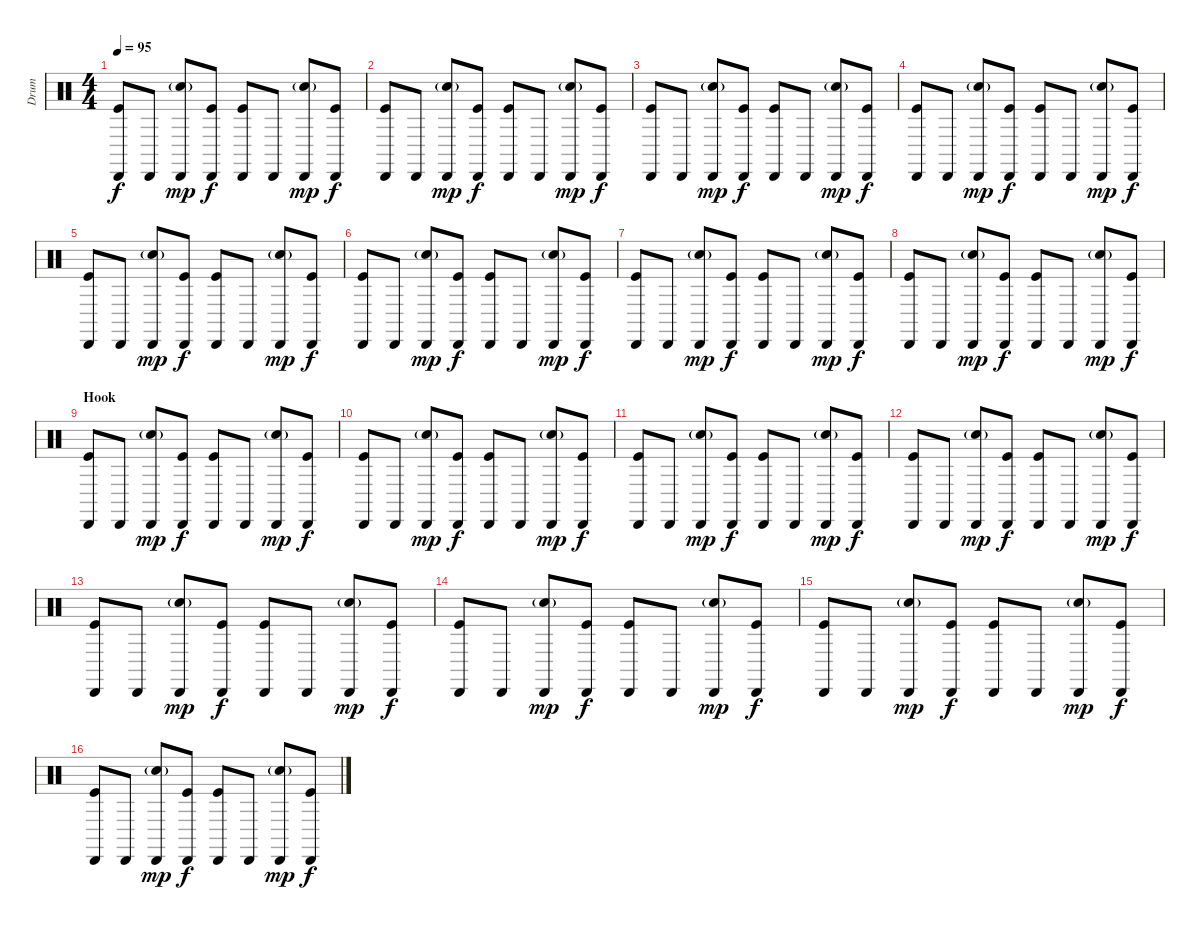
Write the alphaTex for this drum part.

\track ("Drum" "Drum") {instrument percussion}
\staff {score}
\articulation defaults
\ts (4 4)
\tempo 95
\clef neutral
\ks c
("Cabasa (hit)" "Kick (hit)").8{dy f} "Cabasa (hit)".8 ("Cabasa (hit)" "Electric Snare (hit)"{g}).8{dy mp} ("Cabasa (hit)" "Kick (hit)").8{dy f} ("Cabasa (hit)" "Kick (hit)").8 "Cabasa (hit)".8 ("Cabasa (hit)" "Electric Snare (hit)"{g}).8{dy mp} ("Cabasa (hit)" "Kick (hit)").8{dy f} |
("Cabasa (hit)" "Kick (hit)").8 "Cabasa (hit)".8 ("Cabasa (hit)" "Electric Snare (hit)"{g}).8{dy mp} ("Cabasa (hit)" "Kick (hit)").8{dy f} ("Cabasa (hit)" "Kick (hit)").8 "Cabasa (hit)".8 ("Cabasa (hit)" "Electric Snare (hit)"{g}).8{dy mp} ("Cabasa (hit)" "Kick (hit)").8{dy f} |
("Cabasa (hit)" "Kick (hit)").8 "Cabasa (hit)".8 ("Cabasa (hit)" "Electric Snare (hit)"{g}).8{dy mp} ("Cabasa (hit)" "Kick (hit)").8{dy f} ("Cabasa (hit)" "Kick (hit)").8 "Cabasa (hit)".8 ("Cabasa (hit)" "Electric Snare (hit)"{g}).8{dy mp} ("Cabasa (hit)" "Kick (hit)").8{dy f} |
("Cabasa (hit)" "Kick (hit)").8 "Cabasa (hit)".8 ("Cabasa (hit)" "Electric Snare (hit)"{g}).8{dy mp} ("Cabasa (hit)" "Kick (hit)").8{dy f} ("Cabasa (hit)" "Kick (hit)").8 "Cabasa (hit)".8 ("Cabasa (hit)" "Electric Snare (hit)"{g}).8{dy mp} ("Cabasa (hit)" "Kick (hit)").8{dy f} |
("Cabasa (hit)" "Kick (hit)").8 "Cabasa (hit)".8 ("Cabasa (hit)" "Electric Snare (hit)"{g}).8{dy mp} ("Cabasa (hit)" "Kick (hit)").8{dy f} ("Cabasa (hit)" "Kick (hit)").8 "Cabasa (hit)".8 ("Cabasa (hit)" "Electric Snare (hit)"{g}).8{dy mp} ("Cabasa (hit)" "Kick (hit)").8{dy f} |
("Cabasa (hit)" "Kick (hit)").8 "Cabasa (hit)".8 ("Cabasa (hit)" "Electric Snare (hit)"{g}).8{dy mp} ("Cabasa (hit)" "Kick (hit)").8{dy f} ("Cabasa (hit)" "Kick (hit)").8 "Cabasa (hit)".8 ("Cabasa (hit)" "Electric Snare (hit)"{g}).8{dy mp} ("Cabasa (hit)" "Kick (hit)").8{dy f} |
("Cabasa (hit)" "Kick (hit)").8 "Cabasa (hit)".8 ("Cabasa (hit)" "Electric Snare (hit)"{g}).8{dy mp} ("Cabasa (hit)" "Kick (hit)").8{dy f} ("Cabasa (hit)" "Kick (hit)").8 "Cabasa (hit)".8 ("Cabasa (hit)" "Electric Snare (hit)"{g}).8{dy mp} ("Cabasa (hit)" "Kick (hit)").8{dy f} |
("Cabasa (hit)" "Kick (hit)").8 "Cabasa (hit)".8 ("Cabasa (hit)" "Electric Snare (hit)"{g}).8{dy mp} ("Cabasa (hit)" "Kick (hit)").8{dy f} ("Cabasa (hit)" "Kick (hit)").8 "Cabasa (hit)".8 ("Cabasa (hit)" "Electric Snare (hit)"{g}).8{dy mp} ("Cabasa (hit)" "Kick (hit)").8{dy f} |
\section ("" "Hook")
("Cabasa (hit)" "Kick (hit)").8 "Cabasa (hit)".8 ("Cabasa (hit)" "Electric Snare (hit)"{g}).8{dy mp} ("Cabasa (hit)" "Kick (hit)").8{dy f} ("Cabasa (hit)" "Kick (hit)").8 "Cabasa (hit)".8 ("Cabasa (hit)" "Electric Snare (hit)"{g}).8{dy mp} ("Cabasa (hit)" "Kick (hit)").8{dy f} |
\section ("" "")
("Cabasa (hit)" "Kick (hit)").8 "Cabasa (hit)".8 ("Cabasa (hit)" "Electric Snare (hit)"{g}).8{dy mp} ("Cabasa (hit)" "Kick (hit)").8{dy f} ("Cabasa (hit)" "Kick (hit)").8 "Cabasa (hit)".8 ("Cabasa (hit)" "Electric Snare (hit)"{g}).8{dy mp} ("Cabasa (hit)" "Kick (hit)").8{dy f} |
("Cabasa (hit)" "Kick (hit)").8 "Cabasa (hit)".8 ("Cabasa (hit)" "Electric Snare (hit)"{g}).8{dy mp} ("Cabasa (hit)" "Kick (hit)").8{dy f} ("Cabasa (hit)" "Kick (hit)").8 "Cabasa (hit)".8 ("Cabasa (hit)" "Electric Snare (hit)"{g}).8{dy mp} ("Cabasa (hit)" "Kick (hit)").8{dy f} |
("Cabasa (hit)" "Kick (hit)").8 "Cabasa (hit)".8 ("Cabasa (hit)" "Electric Snare (hit)"{g}).8{dy mp} ("Cabasa (hit)" "Kick (hit)").8{dy f} ("Cabasa (hit)" "Kick (hit)").8 "Cabasa (hit)".8 ("Cabasa (hit)" "Electric Snare (hit)"{g}).8{dy mp} ("Cabasa (hit)" "Kick (hit)").8{dy f} |
("Cabasa (hit)" "Kick (hit)").8 "Cabasa (hit)".8 ("Cabasa (hit)" "Electric Snare (hit)"{g}).8{dy mp} ("Cabasa (hit)" "Kick (hit)").8{dy f} ("Cabasa (hit)" "Kick (hit)").8 "Cabasa (hit)".8 ("Cabasa (hit)" "Electric Snare (hit)"{g}).8{dy mp} ("Cabasa (hit)" "Kick (hit)").8{dy f} |
("Cabasa (hit)" "Kick (hit)").8 "Cabasa (hit)".8 ("Cabasa (hit)" "Electric Snare (hit)"{g}).8{dy mp} ("Cabasa (hit)" "Kick (hit)").8{dy f} ("Cabasa (hit)" "Kick (hit)").8 "Cabasa (hit)".8 ("Cabasa (hit)" "Electric Snare (hit)"{g}).8{dy mp} ("Cabasa (hit)" "Kick (hit)").8{dy f} |
("Cabasa (hit)" "Kick (hit)").8 "Cabasa (hit)".8 ("Cabasa (hit)" "Electric Snare (hit)"{g}).8{dy mp} ("Cabasa (hit)" "Kick (hit)").8{dy f} ("Cabasa (hit)" "Kick (hit)").8 "Cabasa (hit)".8 ("Cabasa (hit)" "Electric Snare (hit)"{g}).8{dy mp} ("Cabasa (hit)" "Kick (hit)").8{dy f} |
("Cabasa (hit)" "Kick (hit)").8 "Cabasa (hit)".8 ("Cabasa (hit)" "Electric Snare (hit)"{g}).8{dy mp} ("Cabasa (hit)" "Kick (hit)").8{dy f} ("Cabasa (hit)" "Kick (hit)").8 "Cabasa (hit)".8 ("Cabasa (hit)" "Electric Snare (hit)"{g}).8{dy mp} ("Cabasa (hit)" "Kick (hit)").8{dy f}
